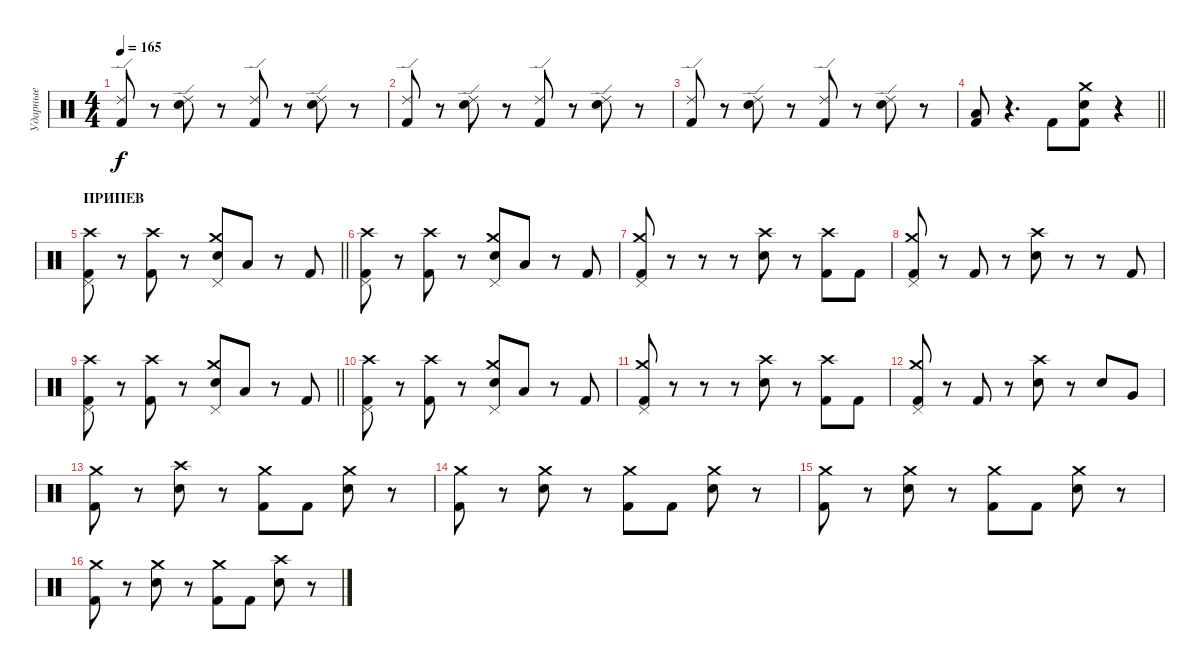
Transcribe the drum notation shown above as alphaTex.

\track ("Ударные" "Ударные") {instrument percussion}
\staff {score}
\articulation defaults
\ts (4 4)
\tempo 165
\clef neutral
\ks c
("Kick (hit) 2" "Ride (edge) 2").8{dy f} r.8 ("Snare (hit) 2" "Ride (edge) 2").8 r.8 ("Kick (hit) 2" "Ride (edge) 2").8 r.8 ("Snare (hit) 2" "Ride (edge) 2").8 r.8 |
("Kick (hit) 2" "Ride (edge) 2").8 r.8 ("Snare (hit) 2" "Ride (edge) 2").8 r.8 ("Kick (hit) 2" "Ride (edge) 2").8 r.8 ("Snare (hit) 2" "Ride (edge) 2").8 r.8 |
("Kick (hit) 2" "Ride (edge) 2").8 r.8 ("Snare (hit) 2" "Ride (edge) 2").8 r.8 ("Kick (hit) 2" "Ride (edge) 2").8 r.8 ("Snare (hit) 2" "Ride (edge) 2").8 r.8 |
\barLineRight lightlight
("Low Tom (hit)" "Kick (hit) 2").8 r.4{d} "Kick (hit) 2".8 ("Kick (hit) 2" "Snare (hit) 2" "Crash medium (hit)").8 r.4 |
\section ("" "ПРИПЕВ")
\barLineRight lightlight
("Pedal Hi-Hat (hit)" "Crash high (hit)" "Kick (hit) 2").8 r.8 ("Crash high (hit)" "Kick (hit) 2").8 r.8 ("Pedal Hi-Hat (hit)" "Crash medium (hit)" "Snare (hit) 2").8 "Low Tom (hit)".8 r.8 "Kick (hit) 2".8 |
("Pedal Hi-Hat (hit)" "Crash high (hit)" "Kick (hit) 2").8 r.8 ("Crash high (hit)" "Kick (hit) 2").8 r.8 ("Pedal Hi-Hat (hit)" "Crash medium (hit)" "Snare (hit) 2").8 "Low Tom (hit)".8 r.8 "Kick (hit) 2".8 |
("Pedal Hi-Hat (hit)" "Crash medium (hit)" "Kick (hit) 2").8 r.8 r.8 r.8 ("Crash high (hit)" "Snare (hit) 2").8 r.8 ("Crash high (hit)" "Kick (hit) 2").8 "Kick (hit) 2".8 |
("Pedal Hi-Hat (hit)" "Crash medium (hit)" "Kick (hit) 2").8 r.8 "Kick (hit) 2".8 r.8 ("Crash high (hit)" "Snare (hit) 2").8 r.8 r.8 "Kick (hit) 2".8 |
\barLineRight lightlight
("Pedal Hi-Hat (hit)" "Crash high (hit)" "Kick (hit) 2").8 r.8 ("Crash high (hit)" "Kick (hit) 2").8 r.8 ("Pedal Hi-Hat (hit)" "Crash medium (hit)" "Snare (hit) 2").8 "Low Tom (hit)".8 r.8 "Kick (hit) 2".8 |
("Pedal Hi-Hat (hit)" "Crash high (hit)" "Kick (hit) 2").8 r.8 ("Crash high (hit)" "Kick (hit) 2").8 r.8 ("Pedal Hi-Hat (hit)" "Crash medium (hit)" "Snare (hit) 2").8 "Low Tom (hit)".8 r.8 "Kick (hit) 2".8 |
("Pedal Hi-Hat (hit)" "Crash medium (hit)" "Kick (hit) 2").8 r.8 r.8 r.8 ("Crash high (hit)" "Snare (hit) 2").8 r.8 ("Crash high (hit)" "Kick (hit) 2").8 "Kick (hit) 2".8 |
("Pedal Hi-Hat (hit)" "Crash medium (hit)" "Kick (hit) 2").8 r.8 "Kick (hit) 2".8 r.8 ("Crash high (hit)" "Snare (hit) 2").8 r.8 "Snare (hit) 2".8 "Very Low Tom (hit)".8 |
("Crash medium (hit)" "Kick (hit) 2").8 r.8 ("Crash high (hit)" "Snare (hit) 2").8 r.8 ("Crash medium (hit)" "Kick (hit) 2").8 "Kick (hit) 2".8 ("Crash medium (hit)" "Snare (hit) 2").8 r.8 |
("Crash medium (hit)" "Kick (hit) 2").8 r.8 ("Crash medium (hit)" "Snare (hit) 2").8 r.8 ("Crash medium (hit)" "Kick (hit) 2").8 "Kick (hit) 2".8 ("Crash medium (hit)" "Snare (hit) 2").8 r.8 |
("Crash medium (hit)" "Kick (hit) 2").8 r.8 ("Crash medium (hit)" "Snare (hit) 2").8 r.8 ("Crash medium (hit)" "Kick (hit) 2").8 "Kick (hit) 2".8 ("Crash medium (hit)" "Snare (hit) 2").8 r.8 |
("Crash medium (hit)" "Kick (hit) 2").8 r.8 ("Crash medium (hit)" "Snare (hit) 2").8 r.8 ("Crash medium (hit)" "Kick (hit) 2").8 "Kick (hit) 2".8 ("Crash high (hit)" "Snare (hit) 2").8 r.8
